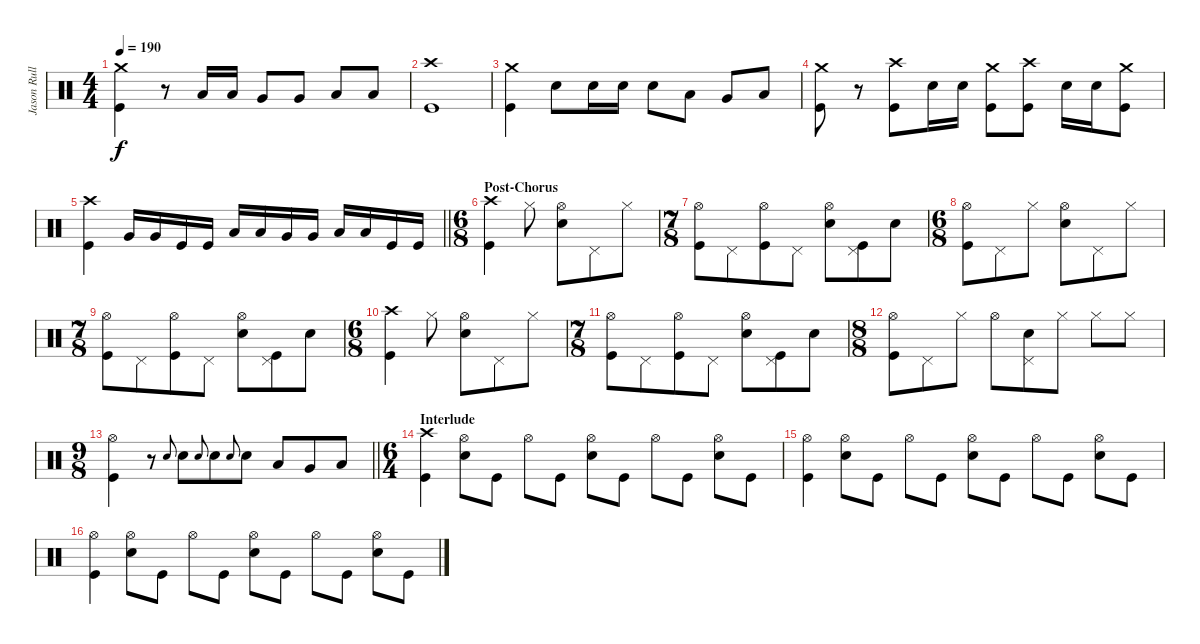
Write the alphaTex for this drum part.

\track ("Jason Rullo - Drums and Percussion" "Jason Rull") {instrument percussion}
\staff {score}
\articulation defaults
\ts (4 4)
\tempo 190
\clef neutral
\ks c
("Crash medium (hit)" "Kick (hit)").4{dy f} r.8 "Low Tom (hit)".16 "Low Tom (hit)".16 "Very Low Tom (hit)".8 "Very Low Tom (hit)".8 "Low Floor Tom (hit)".8 "Low Floor Tom (hit)".8 |
("Crash high (hit)" "Kick (hit)").1 |
("Kick (hit)" "Crash medium (hit)").4 "Snare (hit) 2".8 "Snare (hit) 2".16 "Snare (hit) 2".16 "Snare (hit) 2".8 "Low Tom (hit)".8 "Very Low Tom (hit)".8 "Low Floor Tom (hit)".8 |
("Kick (hit)" "Crash medium (hit)").8 r.8 ("Kick (hit)" "Crash high (hit)").8 "Snare (hit) 2".16 "Snare (hit) 2".16 ("Kick (hit)" "Crash medium (hit)").8 ("Kick (hit)" "Crash high (hit)").8 "Snare (hit) 2".16 "Snare (hit) 2".16 ("Kick (hit)" "Crash medium (hit)").8 |
\barLineRight lightlight
("Kick (hit)" "Crash high (hit)").4 "Very Low Tom (hit)".16 "Very Low Tom (hit)".16 "Kick (hit)".16 "Kick (hit)".16 "Low Tom (hit)".16 "Low Tom (hit)".16 "Very Low Tom (hit)".16 "Very Low Tom (hit)".16 "Low Floor Tom (hit)".16 "Low Floor Tom (hit)".16 "Kick (hit)".16 "Kick (hit)".16 |
\ts (6 8)
\section ("" "Post-Chorus")
("Kick (hit)" "Crash high (hit)").4 "Hi-Hat (closed)".8 ("Snare (hit) 2" "Hi-Hat (open)").8 "Pedal Hi-Hat (hit)".8 "Hi-Hat (closed)".8 |
\ts (7 8)
("Hi-Hat (open)" "Kick (hit)").8 "Pedal Hi-Hat (hit)".8 ("Hi-Hat (open)" "Kick (hit)").8 "Pedal Hi-Hat (hit)".8 ("Snare (hit) 2" "Hi-Hat (open)").8 ("Pedal Hi-Hat (hit)" "Kick (hit)").8 "Snare (hit) 2".8 |
\ts (6 8)
("Kick (hit)" "Hi-Hat (open)").8 "Pedal Hi-Hat (hit)".8 "Hi-Hat (closed)".8 ("Snare (hit) 2" "Hi-Hat (open)").8 "Pedal Hi-Hat (hit)".8 "Hi-Hat (closed)".8 |
\ts (7 8)
("Hi-Hat (open)" "Kick (hit)").8 "Pedal Hi-Hat (hit)".8 ("Hi-Hat (open)" "Kick (hit)").8 "Pedal Hi-Hat (hit)".8 ("Snare (hit) 2" "Hi-Hat (open)").8 ("Pedal Hi-Hat (hit)" "Kick (hit)").8 "Snare (hit) 2".8 |
\ts (6 8)
("Kick (hit)" "Crash high (hit)").4 "Hi-Hat (closed)".8 ("Snare (hit) 2" "Hi-Hat (open)").8 "Pedal Hi-Hat (hit)".8 "Hi-Hat (closed)".8 |
\ts (7 8)
("Hi-Hat (open)" "Kick (hit)").8 "Pedal Hi-Hat (hit)".8 ("Hi-Hat (open)" "Kick (hit)").8 "Pedal Hi-Hat (hit)".8 ("Snare (hit) 2" "Hi-Hat (open)").8 ("Pedal Hi-Hat (hit)" "Kick (hit)").8 "Snare (hit) 2".8 |
\ts (8 8)
("Hi-Hat (open)" "Kick (hit)").8 "Pedal Hi-Hat (hit)".8 "Hi-Hat (closed)".8 "Hi-Hat (open)".8 ("Pedal Hi-Hat (hit)" "Snare (hit) 2").8 "Hi-Hat (closed)".8 "Hi-Hat (closed)".8 "Hi-Hat (closed)".8 |
\ts (9 8)
\barLineRight lightlight
("Hi-Hat (open)" "Kick (hit)").4 r.8 "Snare (hit) 2".8{gr onbeat} "Snare (hit) 2".8 "Snare (hit) 2".8{gr onbeat} "Snare (hit) 2".8 "Snare (hit) 2".8{gr onbeat} "Snare (hit) 2".8 "Low Tom (hit)".8 "Very Low Tom (hit)".8 "Low Floor Tom (hit)".8 |
\ts (6 4)
\section ("" "Interlude")
("Kick (hit)" "Crash high (hit)").4 ("Snare (hit) 2" "Hi-Hat (open)").8 "Kick (hit)".8 "Hi-Hat (open)".8 "Kick (hit)".8 ("Snare (hit) 2" "Hi-Hat (open)").8 "Kick (hit)".8 "Hi-Hat (open)".8 "Kick (hit)".8 ("Snare (hit) 2" "Hi-Hat (open)").8 "Kick (hit)".8 |
("Kick (hit)" "Hi-Hat (open)").4 ("Snare (hit) 2" "Hi-Hat (open)").8 "Kick (hit)".8 "Hi-Hat (open)".8 "Kick (hit)".8 ("Snare (hit) 2" "Hi-Hat (open)").8 "Kick (hit)".8 "Hi-Hat (open)".8 "Kick (hit)".8 ("Snare (hit) 2" "Hi-Hat (open)").8 "Kick (hit)".8 |
("Kick (hit)" "Hi-Hat (open)").4 ("Snare (hit) 2" "Hi-Hat (open)").8 "Kick (hit)".8 "Hi-Hat (open)".8 "Kick (hit)".8 ("Snare (hit) 2" "Hi-Hat (open)").8 "Kick (hit)".8 "Hi-Hat (open)".8 "Kick (hit)".8 ("Snare (hit) 2" "Hi-Hat (open)").8 "Kick (hit)".8
